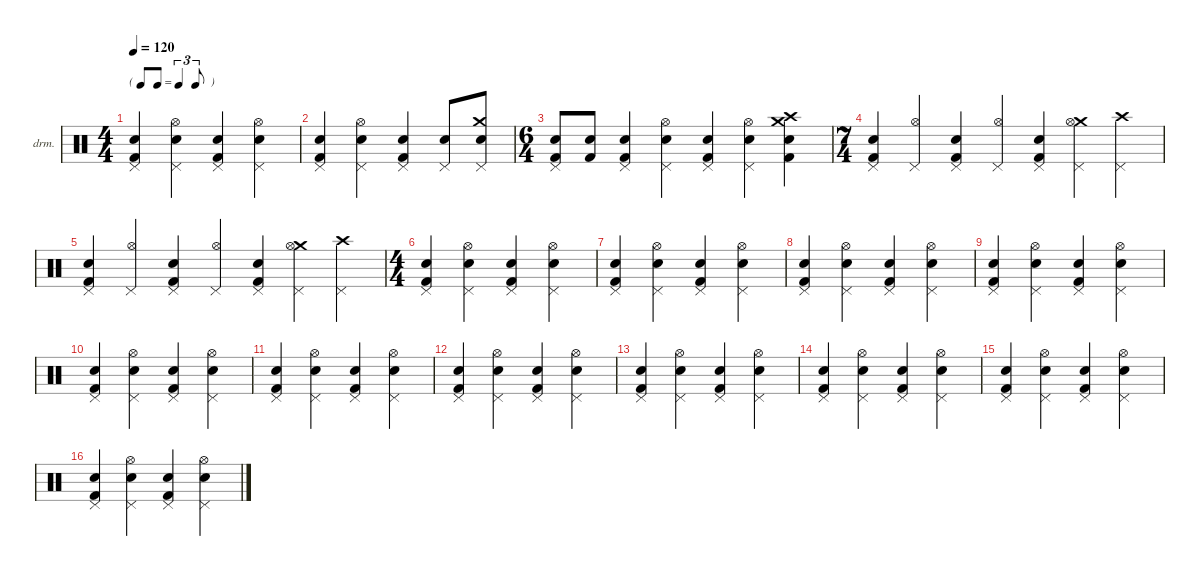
\defaultSystemsLayout 4
\hideDynamics
\bracketExtendMode nobrackets
\firstSystemTrackNameOrientation horizontal
\otherSystemsTrackNameOrientation horizontal
\track ("Percussions" "drm.") {instrument percussion}
\staff {score}
\articulation defaults
\ts (4 4)
\beaming (8 2 2 2 2)
\tf triplet8th
\tempo 120
\clef neutral
\ks c
("Kick (hit) 2" "Snare (hit) 2" "Pedal Hi-Hat (hit)").4{dy f beam Up} ("Hi-Hat (open)" "Snare (hit) 2" "Pedal Hi-Hat (hit)").4{beam Down} ("Kick (hit) 2" "Snare (hit) 2" "Pedal Hi-Hat (hit)").4{beam Up} ("Hi-Hat (open)" "Snare (hit) 2" "Pedal Hi-Hat (hit)").4{beam Down} |
("Kick (hit) 2" "Snare (hit) 2" "Pedal Hi-Hat (hit)").4{beam Up} ("Hi-Hat (open)" "Snare (hit) 2" "Pedal Hi-Hat (hit)").4{beam Down} ("Kick (hit) 2" "Snare (hit) 2" "Pedal Hi-Hat (hit)").4{beam Up} ("Snare (hit) 2" "Pedal Hi-Hat (hit)").8{beam Up} ("Crash medium (hit)" "Snare (hit) 2" "Pedal Hi-Hat (hit)").8{beam Up} |
\ts (6 4)
\beaming (8 6 6)
("Kick (hit) 2" "Snare (hit) 2" "Pedal Hi-Hat (hit)").8{beam Up} ("Snare (hit) 2" "Kick (hit) 2").8{beam Up} ("Kick (hit) 2" "Snare (hit) 2" "Pedal Hi-Hat (hit)").4{beam Up} ("Hi-Hat (open)" "Snare (hit) 2" "Pedal Hi-Hat (hit)").4{beam Down} ("Kick (hit) 2" "Snare (hit) 2" "Pedal Hi-Hat (hit)").4{beam Up} ("Hi-Hat (open)" "Snare (hit) 2" "Pedal Hi-Hat (hit)").4{beam Down} ("Kick (hit) 2" "Crash high (hit)" "Crash medium (hit)" "Snare (hit) 2").4{beam Down} |
\ts (7 4)
\beaming (8 6 4 4)
("Kick (hit) 2" "Snare (hit) 2" "Pedal Hi-Hat (hit)").4{beam Up} ("Hi-Hat (open)" "Pedal Hi-Hat (hit)").4{beam Up} ("Kick (hit) 2" "Snare (hit) 2" "Pedal Hi-Hat (hit)").4{beam Up} ("Hi-Hat (open)" "Pedal Hi-Hat (hit)").4{beam Up} ("Kick (hit) 2" "Snare (hit) 2" "Pedal Hi-Hat (hit)").4{beam Up} ("Crash medium (hit)" "Hi-Hat (open)" "Pedal Hi-Hat (hit)").4{beam Down} ("Crash high (hit)" "Pedal Hi-Hat (hit)").4{beam Down} |
("Kick (hit) 2" "Snare (hit) 2" "Pedal Hi-Hat (hit)").4{beam Up} ("Hi-Hat (open)" "Pedal Hi-Hat (hit)").4{beam Up} ("Kick (hit) 2" "Snare (hit) 2" "Pedal Hi-Hat (hit)").4{beam Up} ("Hi-Hat (open)" "Pedal Hi-Hat (hit)").4{beam Up} ("Kick (hit) 2" "Snare (hit) 2" "Pedal Hi-Hat (hit)").4{beam Up} ("Crash medium (hit)" "Hi-Hat (open)" "Pedal Hi-Hat (hit)").4{beam Down} ("Crash high (hit)" "Pedal Hi-Hat (hit)").4{beam Down} |
\ts (4 4)
\beaming (8 2 2 2 2)
("Kick (hit) 2" "Snare (hit) 2" "Pedal Hi-Hat (hit)").4{beam Up} ("Hi-Hat (open)" "Snare (hit) 2" "Pedal Hi-Hat (hit)").4{beam Down} ("Kick (hit) 2" "Snare (hit) 2" "Pedal Hi-Hat (hit)").4{beam Up} ("Hi-Hat (open)" "Snare (hit) 2" "Pedal Hi-Hat (hit)").4{beam Down} |
("Kick (hit) 2" "Snare (hit) 2" "Pedal Hi-Hat (hit)").4{beam Up} ("Hi-Hat (open)" "Snare (hit) 2" "Pedal Hi-Hat (hit)").4{beam Down} ("Kick (hit) 2" "Snare (hit) 2" "Pedal Hi-Hat (hit)").4{beam Up} ("Hi-Hat (open)" "Snare (hit) 2" "Pedal Hi-Hat (hit)").4{beam Down} |
("Kick (hit) 2" "Snare (hit) 2" "Pedal Hi-Hat (hit)").4{beam Up} ("Hi-Hat (open)" "Snare (hit) 2" "Pedal Hi-Hat (hit)").4{beam Down} ("Kick (hit) 2" "Snare (hit) 2" "Pedal Hi-Hat (hit)").4{beam Up} ("Hi-Hat (open)" "Snare (hit) 2" "Pedal Hi-Hat (hit)").4{beam Down} |
("Kick (hit) 2" "Snare (hit) 2" "Pedal Hi-Hat (hit)").4{beam Up} ("Hi-Hat (open)" "Snare (hit) 2" "Pedal Hi-Hat (hit)").4{beam Down} ("Kick (hit) 2" "Snare (hit) 2" "Pedal Hi-Hat (hit)").4{beam Up} ("Hi-Hat (open)" "Snare (hit) 2" "Pedal Hi-Hat (hit)").4{beam Down} |
("Kick (hit) 2" "Snare (hit) 2" "Pedal Hi-Hat (hit)").4{beam Up} ("Hi-Hat (open)" "Snare (hit) 2" "Pedal Hi-Hat (hit)").4{beam Down} ("Kick (hit) 2" "Snare (hit) 2" "Pedal Hi-Hat (hit)").4{beam Up} ("Hi-Hat (open)" "Snare (hit) 2" "Pedal Hi-Hat (hit)").4{beam Down} |
("Kick (hit) 2" "Snare (hit) 2" "Pedal Hi-Hat (hit)").4{beam Up} ("Hi-Hat (open)" "Snare (hit) 2" "Pedal Hi-Hat (hit)").4{beam Down} ("Kick (hit) 2" "Snare (hit) 2" "Pedal Hi-Hat (hit)").4{beam Up} ("Hi-Hat (open)" "Snare (hit) 2" "Pedal Hi-Hat (hit)").4{beam Down} |
("Kick (hit) 2" "Snare (hit) 2" "Pedal Hi-Hat (hit)").4{beam Up} ("Hi-Hat (open)" "Snare (hit) 2" "Pedal Hi-Hat (hit)").4{beam Down} ("Kick (hit) 2" "Snare (hit) 2" "Pedal Hi-Hat (hit)").4{beam Up} ("Hi-Hat (open)" "Snare (hit) 2" "Pedal Hi-Hat (hit)").4{beam Down} |
("Kick (hit) 2" "Snare (hit) 2" "Pedal Hi-Hat (hit)").4{beam Up} ("Hi-Hat (open)" "Snare (hit) 2" "Pedal Hi-Hat (hit)").4{beam Down} ("Kick (hit) 2" "Snare (hit) 2" "Pedal Hi-Hat (hit)").4{beam Up} ("Hi-Hat (open)" "Snare (hit) 2" "Pedal Hi-Hat (hit)").4{beam Down} |
("Kick (hit) 2" "Snare (hit) 2" "Pedal Hi-Hat (hit)").4{beam Up} ("Hi-Hat (open)" "Snare (hit) 2" "Pedal Hi-Hat (hit)").4{beam Down} ("Kick (hit) 2" "Snare (hit) 2" "Pedal Hi-Hat (hit)").4{beam Up} ("Hi-Hat (open)" "Snare (hit) 2" "Pedal Hi-Hat (hit)").4{beam Down} |
("Kick (hit) 2" "Snare (hit) 2" "Pedal Hi-Hat (hit)").4{beam Up} ("Hi-Hat (open)" "Snare (hit) 2" "Pedal Hi-Hat (hit)").4{beam Down} ("Kick (hit) 2" "Snare (hit) 2" "Pedal Hi-Hat (hit)").4{beam Up} ("Hi-Hat (open)" "Snare (hit) 2" "Pedal Hi-Hat (hit)").4{beam Down} |
("Kick (hit) 2" "Snare (hit) 2" "Pedal Hi-Hat (hit)").4{beam Up} ("Hi-Hat (open)" "Snare (hit) 2" "Pedal Hi-Hat (hit)").4{beam Down} ("Kick (hit) 2" "Snare (hit) 2" "Pedal Hi-Hat (hit)").4{beam Up} ("Hi-Hat (open)" "Snare (hit) 2" "Pedal Hi-Hat (hit)").4{beam Down}
